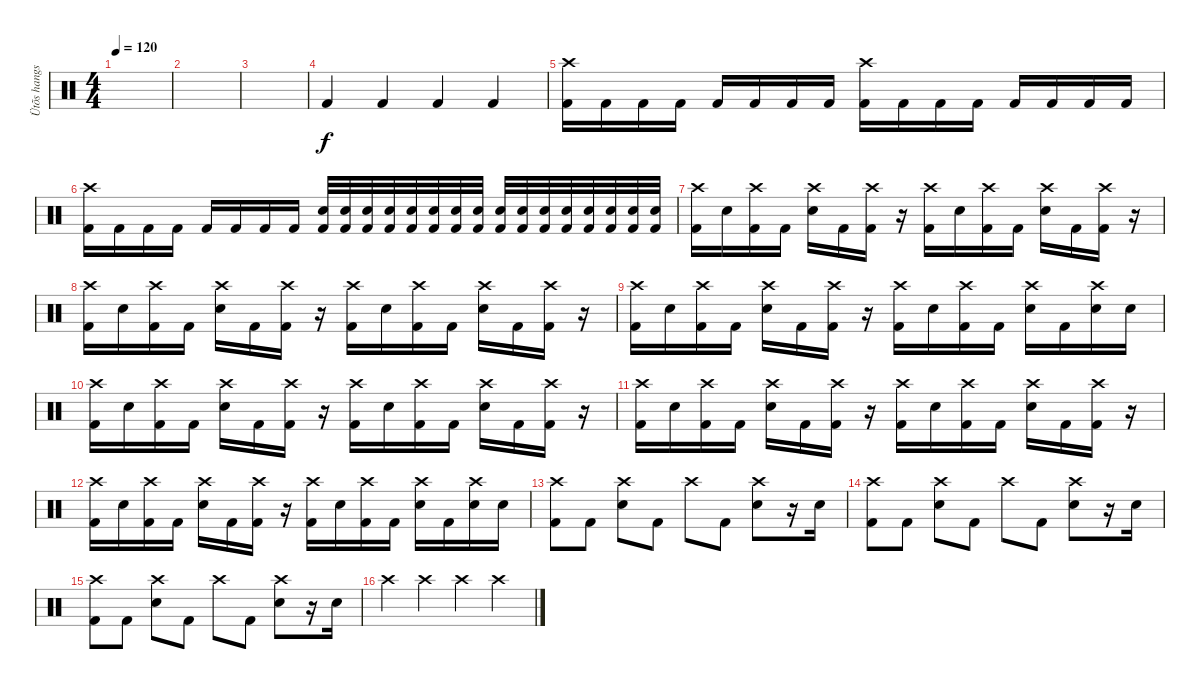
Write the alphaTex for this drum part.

\track ("Ütõs hangszer" "Ütõs hangs") {instrument percussion}
\staff {score}
\articulation defaults
\ts (4 4)
\tempo 120
\clef neutral
\ks c
|
|
|
"Kick (hit) 2".4 "Kick (hit) 2".4 "Kick (hit) 2".4 "Kick (hit) 2".4 |
("Crash high (hit)" "Kick (hit) 2").16 "Kick (hit) 2".16 "Kick (hit) 2".16 "Kick (hit) 2".16 "Kick (hit) 2".16 "Kick (hit) 2".16 "Kick (hit) 2".16 "Kick (hit) 2".16 ("Crash high (hit)" "Kick (hit) 2").16 "Kick (hit) 2".16 "Kick (hit) 2".16 "Kick (hit) 2".16 "Kick (hit) 2".16 "Kick (hit) 2".16 "Kick (hit) 2".16 "Kick (hit) 2".16 |
("Crash high (hit)" "Kick (hit) 2").16 "Kick (hit) 2".16 "Kick (hit) 2".16 "Kick (hit) 2".16 "Kick (hit) 2".16 "Kick (hit) 2".16 "Kick (hit) 2".16 "Kick (hit) 2".16 ("Electric Snare (hit)" "Kick (hit) 2").32 ("Electric Snare (hit)" "Kick (hit) 2").32 ("Electric Snare (hit)" "Kick (hit) 2").32 ("Electric Snare (hit)" "Kick (hit) 2").32 ("Electric Snare (hit)" "Kick (hit) 2").32 ("Electric Snare (hit)" "Kick (hit) 2").32 ("Electric Snare (hit)" "Kick (hit) 2").32 ("Electric Snare (hit)" "Kick (hit) 2").32 ("Electric Snare (hit)" "Kick (hit) 2").32 ("Electric Snare (hit)" "Kick (hit) 2").32 ("Electric Snare (hit)" "Kick (hit) 2").32 ("Electric Snare (hit)" "Kick (hit) 2").32 ("Electric Snare (hit)" "Kick (hit) 2").32 ("Electric Snare (hit)" "Kick (hit) 2").32 ("Electric Snare (hit)" "Kick (hit) 2").32 ("Electric Snare (hit)" "Kick (hit) 2").32 |
("Crash high (hit)" "Kick (hit) 2").16 "Electric Snare (hit)".16 ("Crash high (hit)" "Kick (hit) 2").16 "Kick (hit) 2".16 ("Crash high (hit)" "Electric Snare (hit)").16 "Kick (hit) 2".16 ("Crash high (hit)" "Kick (hit) 2").16 r.16 ("Crash high (hit)" "Kick (hit) 2").16 "Electric Snare (hit)".16 ("Crash high (hit)" "Kick (hit) 2").16 "Kick (hit) 2".16 ("Crash high (hit)" "Electric Snare (hit)").16 "Kick (hit) 2".16 ("Crash high (hit)" "Kick (hit) 2").16 r.16 |
("Crash high (hit)" "Kick (hit) 2").16 "Electric Snare (hit)".16 ("Crash high (hit)" "Kick (hit) 2").16 "Kick (hit) 2".16 ("Crash high (hit)" "Electric Snare (hit)").16 "Kick (hit) 2".16 ("Crash high (hit)" "Kick (hit) 2").16 r.16 ("Crash high (hit)" "Kick (hit) 2").16 "Electric Snare (hit)".16 ("Crash high (hit)" "Kick (hit) 2").16 "Kick (hit) 2".16 ("Crash high (hit)" "Electric Snare (hit)").16 "Kick (hit) 2".16 ("Crash high (hit)" "Kick (hit) 2").16 r.16 |
("Crash high (hit)" "Kick (hit) 2").16 "Electric Snare (hit)".16 ("Crash high (hit)" "Kick (hit) 2").16 "Kick (hit) 2".16 ("Crash high (hit)" "Electric Snare (hit)").16 "Kick (hit) 2".16 ("Crash high (hit)" "Kick (hit) 2").16 r.16 ("Crash high (hit)" "Kick (hit) 2").16 "Electric Snare (hit)".16 ("Crash high (hit)" "Kick (hit) 2").16 "Kick (hit) 2".16 ("Crash high (hit)" "Electric Snare (hit)").16 "Kick (hit) 2".16 ("Crash high (hit)" "Electric Snare (hit)").16 "Electric Snare (hit)".16 |
("Crash high (hit)" "Kick (hit) 2").16 "Electric Snare (hit)".16 ("Crash high (hit)" "Kick (hit) 2").16 "Kick (hit) 2".16 ("Crash high (hit)" "Electric Snare (hit)").16 "Kick (hit) 2".16 ("Crash high (hit)" "Kick (hit) 2").16 r.16 ("Crash high (hit)" "Kick (hit) 2").16 "Electric Snare (hit)".16 ("Crash high (hit)" "Kick (hit) 2").16 "Kick (hit) 2".16 ("Crash high (hit)" "Electric Snare (hit)").16 "Kick (hit) 2".16 ("Crash high (hit)" "Kick (hit) 2").16 r.16 |
("Crash high (hit)" "Kick (hit) 2").16 "Electric Snare (hit)".16 ("Crash high (hit)" "Kick (hit) 2").16 "Kick (hit) 2".16 ("Crash high (hit)" "Electric Snare (hit)").16 "Kick (hit) 2".16 ("Crash high (hit)" "Kick (hit) 2").16 r.16 ("Crash high (hit)" "Kick (hit) 2").16 "Electric Snare (hit)".16 ("Crash high (hit)" "Kick (hit) 2").16 "Kick (hit) 2".16 ("Crash high (hit)" "Electric Snare (hit)").16 "Kick (hit) 2".16 ("Crash high (hit)" "Kick (hit) 2").16 r.16 |
("Crash high (hit)" "Kick (hit) 2").16 "Electric Snare (hit)".16 ("Crash high (hit)" "Kick (hit) 2").16 "Kick (hit) 2".16 ("Crash high (hit)" "Electric Snare (hit)").16 "Kick (hit) 2".16 ("Crash high (hit)" "Kick (hit) 2").16 r.16 ("Crash high (hit)" "Kick (hit) 2").16 "Electric Snare (hit)".16 ("Crash high (hit)" "Kick (hit) 2").16 "Kick (hit) 2".16 ("Crash high (hit)" "Electric Snare (hit)").16 "Kick (hit) 2".16 ("Crash high (hit)" "Electric Snare (hit)").16 "Electric Snare (hit)".16 |
("Crash high (hit)" "Kick (hit) 2").8 "Kick (hit) 2".8 ("Crash high (hit)" "Electric Snare (hit)").8 "Kick (hit) 2".8 "Crash high (hit)".8 "Kick (hit) 2".8 ("Crash high (hit)" "Electric Snare (hit)").8 r.16 "Electric Snare (hit)".16 |
("Crash high (hit)" "Kick (hit) 2").8 "Kick (hit) 2".8 ("Crash high (hit)" "Electric Snare (hit)").8 "Kick (hit) 2".8 "Crash high (hit)".8 "Kick (hit) 2".8 ("Crash high (hit)" "Electric Snare (hit)").8 r.16 "Electric Snare (hit)".16 |
("Crash high (hit)" "Kick (hit) 2").8 "Kick (hit) 2".8 ("Crash high (hit)" "Electric Snare (hit)").8 "Kick (hit) 2".8 "Crash high (hit)".8 "Kick (hit) 2".8 ("Crash high (hit)" "Electric Snare (hit)").8 r.16 "Electric Snare (hit)".16 |
"Crash high (hit)".4 "Crash high (hit)".4 "Crash high (hit)".4 "Crash high (hit)".4
